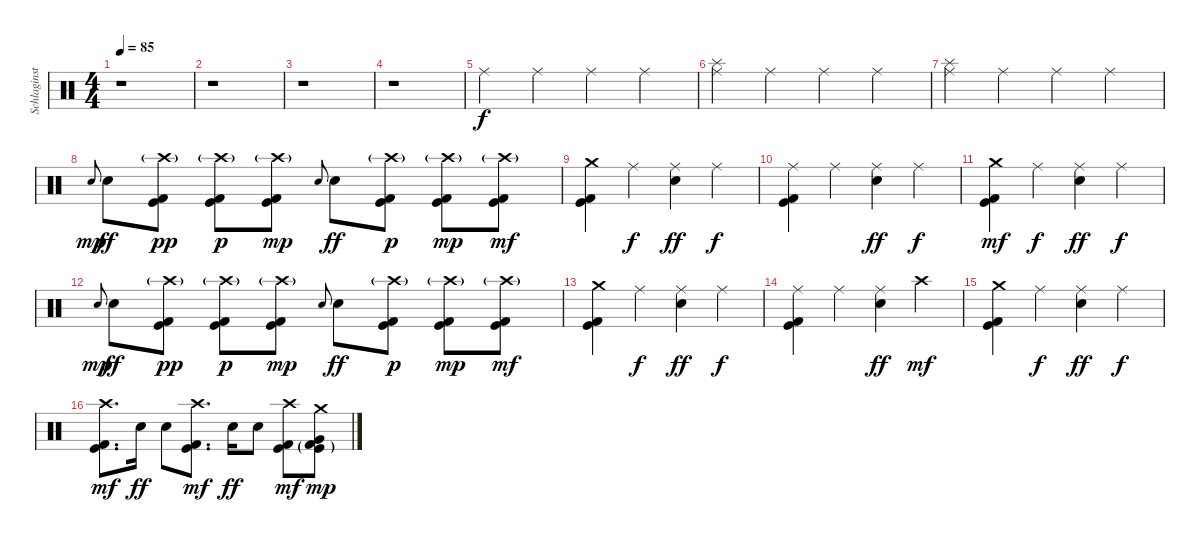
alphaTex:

\track ("Schlaginstrumente - Auswahl" "Schlaginst") {instrument percussion}
\staff {score}
\articulation defaults
\ts (4 4)
\tempo 85
\clef neutral
\ks c
r.1{dy mf} |
r.1 |
r.1 |
r.1 |
"Ride (middle)".4{dy f} "Ride (middle)".4 "Ride (middle)".4 "Ride (middle)".4 |
("Ride (middle)" "Splash (hit)").4 "Ride (middle)".4 "Ride (middle)".4 "Ride (middle)".4 |
("Ride (middle)" "Splash (hit)").4 "Ride (middle)".4 "Ride (middle)".4 "Ride (middle)".4 |
"Snare (hit) 2".8{gr onbeat dy mp} "Snare (hit) 2".8{dy ff} ("Crash high (hit)"{g} "Kick (hit) 2" "Kick (hit)").8{dy pp} ("Crash high (hit)"{g} "Kick (hit) 2" "Kick (hit)").8{dy p} ("Crash high (hit)"{g} "Kick (hit) 2" "Kick (hit)").8{dy mp} "Snare (hit) 2".8{gr onbeat} "Snare (hit) 2".8{dy ff} ("Crash high (hit)"{g} "Kick (hit) 2" "Kick (hit)").8{dy p} ("Crash high (hit)"{g} "Kick (hit) 2" "Kick (hit)").8{dy mp} ("Crash high (hit)"{g} "Kick (hit) 2" "Kick (hit)").8{dy mf} |
("Crash medium (hit)" "Kick (hit) 2" "Kick (hit)").4 "Ride (middle)".4{dy f} ("Ride (middle)" "Snare (hit) 2").4{dy ff} "Ride (middle)".4{dy f} |
("Ride (middle)" "Kick (hit) 2" "Kick (hit)").4 "Ride (middle)".4 ("Ride (middle)" "Snare (hit) 2").4{dy ff} "Ride (middle)".4{dy f} |
("Crash medium (hit)" "Kick (hit) 2" "Kick (hit)").4{dy mf} "Ride (middle)".4{dy f} ("Ride (middle)" "Snare (hit) 2").4{dy ff} "Ride (middle)".4{dy f} |
"Snare (hit) 2".8{gr onbeat dy mp} "Snare (hit) 2".8{dy ff} ("Crash high (hit)"{g} "Kick (hit) 2" "Kick (hit)").8{dy pp} ("Crash high (hit)"{g} "Kick (hit) 2" "Kick (hit)").8{dy p} ("Crash high (hit)"{g} "Kick (hit) 2" "Kick (hit)").8{dy mp} "Snare (hit) 2".8{gr onbeat} "Snare (hit) 2".8{dy ff} ("Crash high (hit)"{g} "Kick (hit) 2" "Kick (hit)").8{dy p} ("Crash high (hit)"{g} "Kick (hit) 2" "Kick (hit)").8{dy mp} ("Crash high (hit)"{g} "Kick (hit) 2" "Kick (hit)").8{dy mf} |
("Crash medium (hit)" "Kick (hit) 2" "Kick (hit)").4 "Ride (middle)".4{dy f} ("Ride (middle)" "Snare (hit) 2").4{dy ff} "Ride (middle)".4{dy f} |
("Ride (middle)" "Kick (hit) 2" "Kick (hit)").4 "Ride (middle)".4 ("Ride (middle)" "Snare (hit) 2").4{dy ff} "Crash high (hit)".4{dy mf} |
("Crash medium (hit)" "Kick (hit) 2" "Kick (hit)").4 "Ride (middle)".4{dy f} ("Ride (middle)" "Snare (hit) 2").4{dy ff} "Ride (middle)".4{dy f} |
("Crash high (hit)" "Kick (hit) 2" "Kick (hit)").8{d dy mf} "Snare (hit) 2".16{dy ff} "Snare (hit) 2".8 ("Crash high (hit)" "Kick (hit) 2" "Kick (hit)").8{d dy mf} "Snare (hit) 2".16{dy ff} "Snare (hit) 2".8 ("Crash high (hit)" "Kick (hit) 2" "Kick (hit)").8{dy mf} ("Crash medium (hit)" "Very Low Tom (hit)" "Kick (hit) 2"{g} "Kick (hit)"{g}).8{dy mp}
